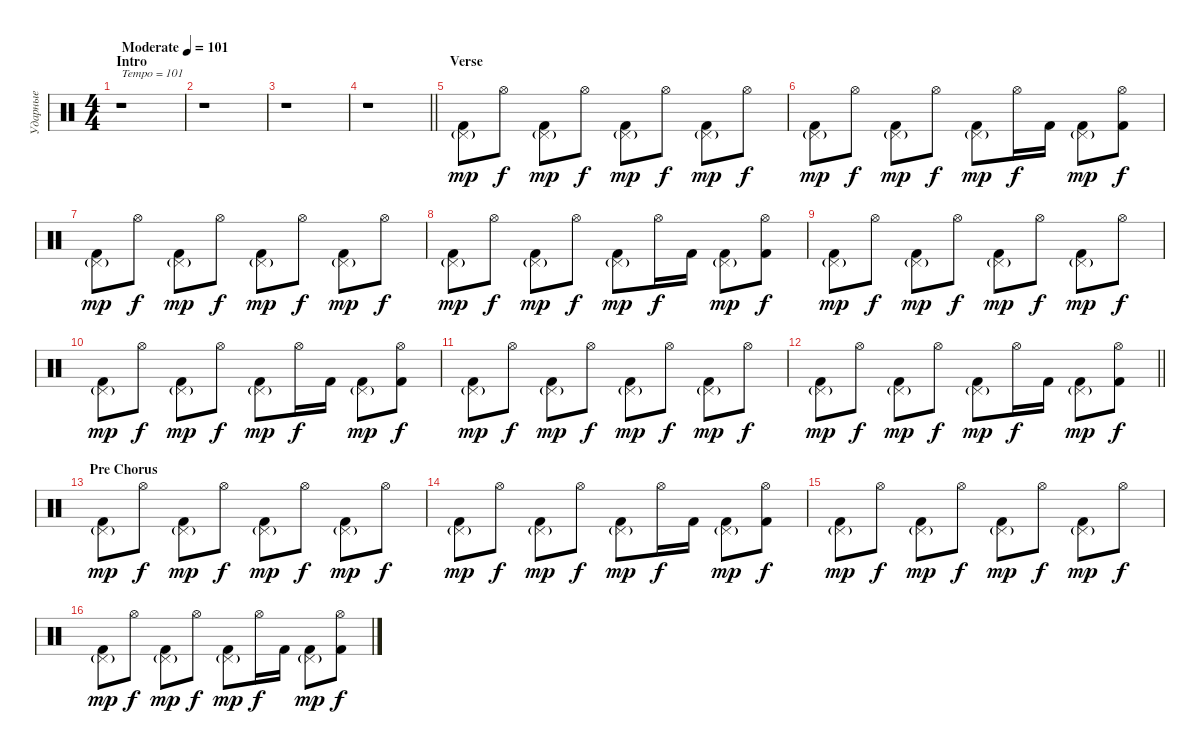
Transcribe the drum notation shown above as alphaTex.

\track ("Ударные" "Ударные") {instrument percussion}
\staff {score}
\articulation defaults
\ts (4 4)
\section ("" "Intro")
\tempo (101 "Moderate")
\clef neutral
\ks c
r.1{txt "Tempo = 101" dy mp} |
r.1 |
r.1 |
\barLineRight lightlight
r.1 |
\section ("" "Verse")
("Pedal Hi-Hat (hit)"{g} "Kick (hit) 2").8 "Hi-Hat (open)".8{dy f} ("Pedal Hi-Hat (hit)"{g} "Kick (hit) 2").8{dy mp} "Hi-Hat (open)".8{dy f} ("Pedal Hi-Hat (hit)"{g} "Kick (hit) 2").8{dy mp} "Hi-Hat (open)".8{dy f} ("Pedal Hi-Hat (hit)"{g} "Kick (hit) 2").8{dy mp} "Hi-Hat (open)".8{dy f} |
("Pedal Hi-Hat (hit)"{g} "Kick (hit) 2").8{dy mp} "Hi-Hat (open)".8{dy f} ("Pedal Hi-Hat (hit)"{g} "Kick (hit) 2").8{dy mp} "Hi-Hat (open)".8{dy f} ("Pedal Hi-Hat (hit)"{g} "Kick (hit) 2").8{dy mp} "Hi-Hat (open)".16{dy f} "Kick (hit) 2".16 ("Pedal Hi-Hat (hit)"{g} "Kick (hit) 2").8{dy mp} ("Hi-Hat (open)" "Kick (hit) 2").8{dy f} |
("Pedal Hi-Hat (hit)"{g} "Kick (hit) 2").8{dy mp} "Hi-Hat (open)".8{dy f} ("Pedal Hi-Hat (hit)"{g} "Kick (hit) 2").8{dy mp} "Hi-Hat (open)".8{dy f} ("Pedal Hi-Hat (hit)"{g} "Kick (hit) 2").8{dy mp} "Hi-Hat (open)".8{dy f} ("Pedal Hi-Hat (hit)"{g} "Kick (hit) 2").8{dy mp} "Hi-Hat (open)".8{dy f} |
("Pedal Hi-Hat (hit)"{g} "Kick (hit) 2").8{dy mp} "Hi-Hat (open)".8{dy f} ("Pedal Hi-Hat (hit)"{g} "Kick (hit) 2").8{dy mp} "Hi-Hat (open)".8{dy f} ("Pedal Hi-Hat (hit)"{g} "Kick (hit) 2").8{dy mp} "Hi-Hat (open)".16{dy f} "Kick (hit) 2".16 ("Pedal Hi-Hat (hit)"{g} "Kick (hit) 2").8{dy mp} ("Hi-Hat (open)" "Kick (hit) 2").8{dy f} |
("Pedal Hi-Hat (hit)"{g} "Kick (hit) 2").8{dy mp} "Hi-Hat (open)".8{dy f} ("Pedal Hi-Hat (hit)"{g} "Kick (hit) 2").8{dy mp} "Hi-Hat (open)".8{dy f} ("Pedal Hi-Hat (hit)"{g} "Kick (hit) 2").8{dy mp} "Hi-Hat (open)".8{dy f} ("Pedal Hi-Hat (hit)"{g} "Kick (hit) 2").8{dy mp} "Hi-Hat (open)".8{dy f} |
("Pedal Hi-Hat (hit)"{g} "Kick (hit) 2").8{dy mp} "Hi-Hat (open)".8{dy f} ("Pedal Hi-Hat (hit)"{g} "Kick (hit) 2").8{dy mp} "Hi-Hat (open)".8{dy f} ("Pedal Hi-Hat (hit)"{g} "Kick (hit) 2").8{dy mp} "Hi-Hat (open)".16{dy f} "Kick (hit) 2".16 ("Pedal Hi-Hat (hit)"{g} "Kick (hit) 2").8{dy mp} ("Hi-Hat (open)" "Kick (hit) 2").8{dy f} |
("Pedal Hi-Hat (hit)"{g} "Kick (hit) 2").8{dy mp} "Hi-Hat (open)".8{dy f} ("Pedal Hi-Hat (hit)"{g} "Kick (hit) 2").8{dy mp} "Hi-Hat (open)".8{dy f} ("Pedal Hi-Hat (hit)"{g} "Kick (hit) 2").8{dy mp} "Hi-Hat (open)".8{dy f} ("Pedal Hi-Hat (hit)"{g} "Kick (hit) 2").8{dy mp} "Hi-Hat (open)".8{dy f} |
\barLineRight lightlight
("Pedal Hi-Hat (hit)"{g} "Kick (hit) 2").8{dy mp} "Hi-Hat (open)".8{dy f} ("Pedal Hi-Hat (hit)"{g} "Kick (hit) 2").8{dy mp} "Hi-Hat (open)".8{dy f} ("Pedal Hi-Hat (hit)"{g} "Kick (hit) 2").8{dy mp} "Hi-Hat (open)".16{dy f} "Kick (hit) 2".16 ("Pedal Hi-Hat (hit)"{g} "Kick (hit) 2").8{dy mp} ("Hi-Hat (open)" "Kick (hit) 2").8{dy f} |
\section ("" "Pre Chorus")
("Pedal Hi-Hat (hit)"{g} "Kick (hit) 2").8{dy mp} "Hi-Hat (open)".8{dy f} ("Pedal Hi-Hat (hit)"{g} "Kick (hit) 2").8{dy mp} "Hi-Hat (open)".8{dy f} ("Pedal Hi-Hat (hit)"{g} "Kick (hit) 2").8{dy mp} "Hi-Hat (open)".8{dy f} ("Pedal Hi-Hat (hit)"{g} "Kick (hit) 2").8{dy mp} "Hi-Hat (open)".8{dy f} |
("Pedal Hi-Hat (hit)"{g} "Kick (hit) 2").8{dy mp} "Hi-Hat (open)".8{dy f} ("Pedal Hi-Hat (hit)"{g} "Kick (hit) 2").8{dy mp} "Hi-Hat (open)".8{dy f} ("Pedal Hi-Hat (hit)"{g} "Kick (hit) 2").8{dy mp} "Hi-Hat (open)".16{dy f} "Kick (hit) 2".16 ("Pedal Hi-Hat (hit)"{g} "Kick (hit) 2").8{dy mp} ("Hi-Hat (open)" "Kick (hit) 2").8{dy f} |
("Pedal Hi-Hat (hit)"{g} "Kick (hit) 2").8{dy mp} "Hi-Hat (open)".8{dy f} ("Pedal Hi-Hat (hit)"{g} "Kick (hit) 2").8{dy mp} "Hi-Hat (open)".8{dy f} ("Pedal Hi-Hat (hit)"{g} "Kick (hit) 2").8{dy mp} "Hi-Hat (open)".8{dy f} ("Pedal Hi-Hat (hit)"{g} "Kick (hit) 2").8{dy mp} "Hi-Hat (open)".8{dy f} |
("Pedal Hi-Hat (hit)"{g} "Kick (hit) 2").8{dy mp} "Hi-Hat (open)".8{dy f} ("Pedal Hi-Hat (hit)"{g} "Kick (hit) 2").8{dy mp} "Hi-Hat (open)".8{dy f} ("Pedal Hi-Hat (hit)"{g} "Kick (hit) 2").8{dy mp} "Hi-Hat (open)".16{dy f} "Kick (hit) 2".16 ("Pedal Hi-Hat (hit)"{g} "Kick (hit) 2").8{dy mp} ("Hi-Hat (open)" "Kick (hit) 2").8{dy f}
